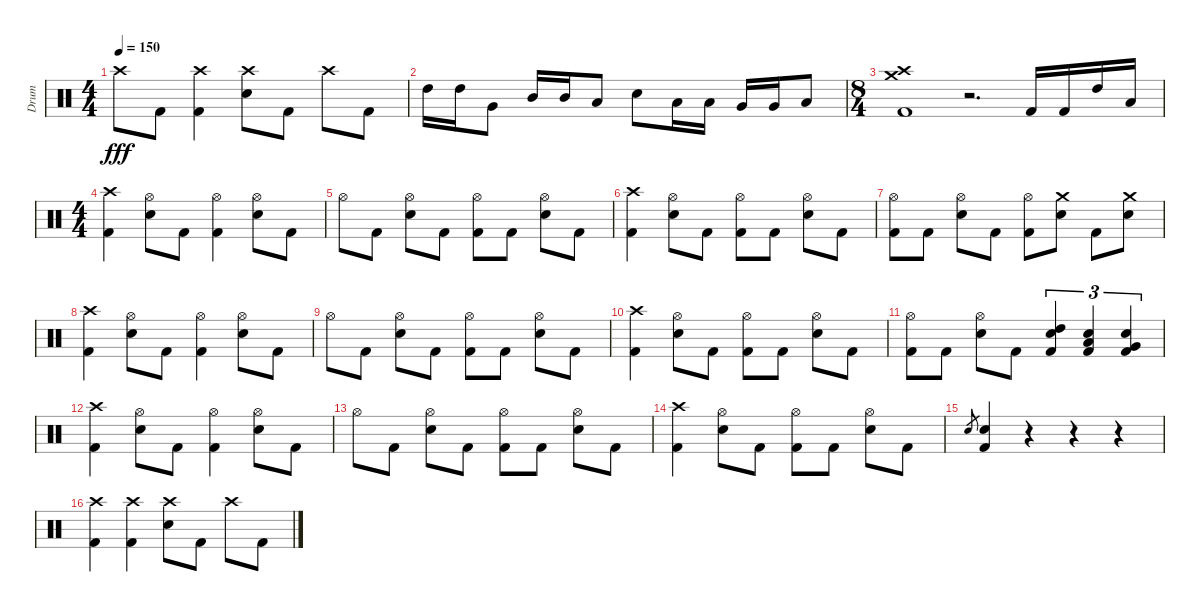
\track ("Drum" "Drum") {instrument percussion}
\staff {score}
\articulation defaults
\ts (4 4)
\tempo 150
\clef neutral
\ks c "Crash high (hit)".8{dy fff} "Kick (hit) 2".8
("Crash high (hit)" "Kick (hit) 2").4 ("Crash high (hit)" "Electric Snare (hit)").8 "Kick (hit) 2".8 "Crash high (hit)".8 "Kick (hit) 2".8 |
"High Tom (hit)".16 "High Tom (hit)".16 "Very Low Tom (hit)".8 "Mid Tom (hit)".16 "Mid Tom (hit)".16 "Low Tom (hit)".8 "Electric Snare (hit)".8 "Low Tom (hit)".16 "Low Tom (hit)".16 "Very Low Tom (hit)".16 "Very Low Tom (hit)".16 "Low Floor Tom (hit)".8 |
\ts (8 4)
("Crash high (hit)" "Crash medium (hit)" "Kick (hit) 2").1 r.2{d} "Kick (hit) 2".16 "Kick (hit) 2".16 "High Tom (hit)".16 "Low Tom (hit)".16 |
\ts (4 4)
("Crash high (hit)" "Kick (hit) 2").4 ("Hi-Hat (open)" "Electric Snare (hit)").8 "Kick (hit) 2".8 ("Hi-Hat (open)" "Kick (hit) 2").4 ("Hi-Hat (open)" "Electric Snare (hit)").8 "Kick (hit) 2".8 |
"Hi-Hat (open)".8 "Kick (hit) 2".8 ("Hi-Hat (open)" "Electric Snare (hit)").8 "Kick (hit) 2".8 ("Hi-Hat (open)" "Kick (hit) 2").8 "Kick (hit) 2".8 ("Hi-Hat (open)" "Electric Snare (hit)").8 "Kick (hit) 2".8 |
("Crash high (hit)" "Kick (hit) 2").4 ("Hi-Hat (open)" "Electric Snare (hit)").8 "Kick (hit) 2".8 ("Hi-Hat (open)" "Kick (hit) 2").8 "Kick (hit) 2".8 ("Hi-Hat (open)" "Electric Snare (hit)").8 "Kick (hit) 2".8 |
("Hi-Hat (open)" "Kick (hit) 2").8 "Kick (hit) 2".8 ("Hi-Hat (open)" "Electric Snare (hit)").8 "Kick (hit) 2".8 ("Hi-Hat (open)" "Kick (hit) 2").8 ("Crash medium (hit)" "Electric Snare (hit)").8 "Kick (hit) 2".8 ("Crash medium (hit)" "Electric Snare (hit)").8 |
("Crash high (hit)" "Kick (hit) 2").4 ("Hi-Hat (open)" "Electric Snare (hit)").8 "Kick (hit) 2".8 ("Hi-Hat (open)" "Kick (hit) 2").4 ("Hi-Hat (open)" "Electric Snare (hit)").8 "Kick (hit) 2".8 |
"Hi-Hat (open)".8 "Kick (hit) 2".8 ("Hi-Hat (open)" "Electric Snare (hit)").8 "Kick (hit) 2".8 ("Hi-Hat (open)" "Kick (hit) 2").8 "Kick (hit) 2".8 ("Hi-Hat (open)" "Electric Snare (hit)").8 "Kick (hit) 2".8 |
("Crash high (hit)" "Kick (hit) 2").4 ("Hi-Hat (open)" "Electric Snare (hit)").8 "Kick (hit) 2".8 ("Hi-Hat (open)" "Kick (hit) 2").8 "Kick (hit) 2".8 ("Hi-Hat (open)" "Electric Snare (hit)").8 "Kick (hit) 2".8 |
("Hi-Hat (open)" "Kick (hit) 2").8 "Kick (hit) 2".8 ("Hi-Hat (open)" "Electric Snare (hit)").8 "Kick (hit) 2".8 ("Electric Snare (hit)" "High Tom (hit)" "Kick (hit) 2").4{tu (3 2)} ("Electric Snare (hit)" "Low Tom (hit)" "Kick (hit) 2").4{tu (3 2)} ("Electric Snare (hit)" "Very Low Tom (hit)" "Kick (hit) 2").4{tu (3 2)} |
("Crash high (hit)" "Kick (hit) 2").4 ("Hi-Hat (open)" "Electric Snare (hit)").8 "Kick (hit) 2".8 ("Hi-Hat (open)" "Kick (hit) 2").4 ("Hi-Hat (open)" "Electric Snare (hit)").8 "Kick (hit) 2".8 |
"Hi-Hat (open)".8 "Kick (hit) 2".8 ("Hi-Hat (open)" "Electric Snare (hit)").8 "Kick (hit) 2".8 ("Hi-Hat (open)" "Kick (hit) 2").8 "Kick (hit) 2".8 ("Hi-Hat (open)" "Electric Snare (hit)").8 "Kick (hit) 2".8 |
("Crash high (hit)" "Kick (hit) 2").4 ("Hi-Hat (open)" "Electric Snare (hit)").8 "Kick (hit) 2".8 ("Hi-Hat (open)" "Kick (hit) 2").8 "Kick (hit) 2".8 ("Hi-Hat (open)" "Electric Snare (hit)").8 "Kick (hit) 2".8 |
"Electric Snare (hit)".8{gr} ("Electric Snare (hit)" "Kick (hit) 2").4 r.4 r.4 r.4 |
("Crash high (hit)" "Kick (hit) 2").4 ("Crash high (hit)" "Kick (hit) 2").4 ("Crash high (hit)" "Electric Snare (hit)").8 "Kick (hit) 2".8 "Crash high (hit)".8 "Kick (hit) 2".8
